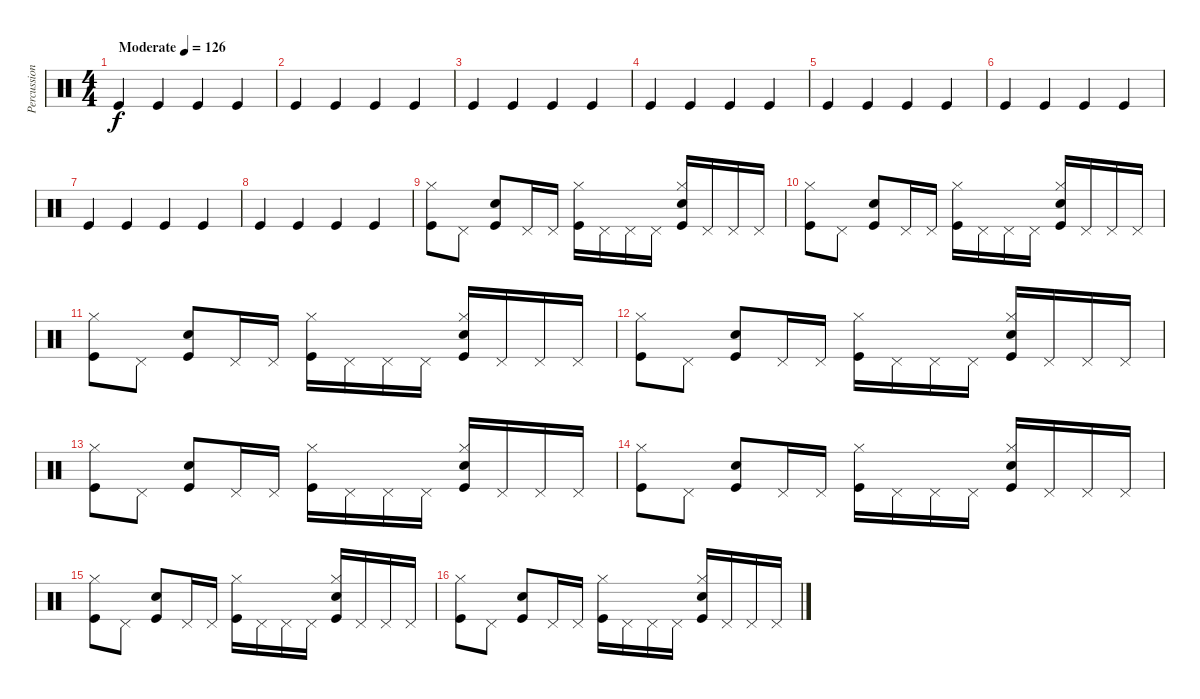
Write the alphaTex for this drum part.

\track ("Percussion" "Percussion") {instrument percussion}
\staff {score}
\articulation defaults
\ts (4 4)
\tempo (126 "Moderate")
\clef neutral
\ks c "Kick (hit)".4{dy f} "Kick (hit)".4 "Kick (hit)".4 "Kick (hit)".4
|
"Kick (hit)".4 "Kick (hit)".4 "Kick (hit)".4 "Kick (hit)".4 |
"Kick (hit)".4 "Kick (hit)".4 "Kick (hit)".4 "Kick (hit)".4 |
"Kick (hit)".4 "Kick (hit)".4 "Kick (hit)".4 "Kick (hit)".4 |
"Kick (hit)".4 "Kick (hit)".4 "Kick (hit)".4 "Kick (hit)".4 |
"Kick (hit)".4 "Kick (hit)".4 "Kick (hit)".4 "Kick (hit)".4 |
"Kick (hit)".4 "Kick (hit)".4 "Kick (hit)".4 "Kick (hit)".4 |
"Kick (hit)".4 "Kick (hit)".4 "Kick (hit)".4 "Kick (hit)".4 |
("Kick (hit)" "Hi-Hat (closed)").8 "Pedal Hi-Hat (hit)".8 ("Kick (hit)" "Snare (hit) 2").8 "Pedal Hi-Hat (hit)".16 "Pedal Hi-Hat (hit)".16 ("Kick (hit)" "Hi-Hat (closed)").16 "Pedal Hi-Hat (hit)".16 "Pedal Hi-Hat (hit)".16 "Pedal Hi-Hat (hit)".16 ("Kick (hit)" "Snare (hit) 2" "Hi-Hat (closed)").16 "Pedal Hi-Hat (hit)".16 "Pedal Hi-Hat (hit)".16 "Pedal Hi-Hat (hit)".16 |
("Kick (hit)" "Hi-Hat (closed)").8 "Pedal Hi-Hat (hit)".8 ("Kick (hit)" "Snare (hit) 2").8 "Pedal Hi-Hat (hit)".16 "Pedal Hi-Hat (hit)".16 ("Kick (hit)" "Hi-Hat (closed)").16 "Pedal Hi-Hat (hit)".16 "Pedal Hi-Hat (hit)".16 "Pedal Hi-Hat (hit)".16 ("Kick (hit)" "Snare (hit) 2" "Hi-Hat (closed)").16 "Pedal Hi-Hat (hit)".16 "Pedal Hi-Hat (hit)".16 "Pedal Hi-Hat (hit)".16 |
("Kick (hit)" "Hi-Hat (closed)").8 "Pedal Hi-Hat (hit)".8 ("Kick (hit)" "Snare (hit) 2").8 "Pedal Hi-Hat (hit)".16 "Pedal Hi-Hat (hit)".16 ("Kick (hit)" "Hi-Hat (closed)").16 "Pedal Hi-Hat (hit)".16 "Pedal Hi-Hat (hit)".16 "Pedal Hi-Hat (hit)".16 ("Kick (hit)" "Snare (hit) 2" "Hi-Hat (closed)").16 "Pedal Hi-Hat (hit)".16 "Pedal Hi-Hat (hit)".16 "Pedal Hi-Hat (hit)".16 |
("Kick (hit)" "Hi-Hat (closed)").8 "Pedal Hi-Hat (hit)".8 ("Kick (hit)" "Snare (hit) 2").8 "Pedal Hi-Hat (hit)".16 "Pedal Hi-Hat (hit)".16 ("Kick (hit)" "Hi-Hat (closed)").16 "Pedal Hi-Hat (hit)".16 "Pedal Hi-Hat (hit)".16 "Pedal Hi-Hat (hit)".16 ("Kick (hit)" "Snare (hit) 2" "Hi-Hat (closed)").16 "Pedal Hi-Hat (hit)".16 "Pedal Hi-Hat (hit)".16 "Pedal Hi-Hat (hit)".16 |
("Kick (hit)" "Hi-Hat (closed)").8 "Pedal Hi-Hat (hit)".8 ("Kick (hit)" "Snare (hit) 2").8 "Pedal Hi-Hat (hit)".16 "Pedal Hi-Hat (hit)".16 ("Kick (hit)" "Hi-Hat (closed)").16 "Pedal Hi-Hat (hit)".16 "Pedal Hi-Hat (hit)".16 "Pedal Hi-Hat (hit)".16 ("Kick (hit)" "Snare (hit) 2" "Hi-Hat (closed)").16 "Pedal Hi-Hat (hit)".16 "Pedal Hi-Hat (hit)".16 "Pedal Hi-Hat (hit)".16 |
("Kick (hit)" "Hi-Hat (closed)").8 "Pedal Hi-Hat (hit)".8 ("Kick (hit)" "Snare (hit) 2").8 "Pedal Hi-Hat (hit)".16 "Pedal Hi-Hat (hit)".16 ("Kick (hit)" "Hi-Hat (closed)").16 "Pedal Hi-Hat (hit)".16 "Pedal Hi-Hat (hit)".16 "Pedal Hi-Hat (hit)".16 ("Kick (hit)" "Snare (hit) 2" "Hi-Hat (closed)").16 "Pedal Hi-Hat (hit)".16 "Pedal Hi-Hat (hit)".16 "Pedal Hi-Hat (hit)".16 |
("Kick (hit)" "Hi-Hat (closed)").8 "Pedal Hi-Hat (hit)".8 ("Kick (hit)" "Snare (hit) 2").8 "Pedal Hi-Hat (hit)".16 "Pedal Hi-Hat (hit)".16 ("Kick (hit)" "Hi-Hat (closed)").16 "Pedal Hi-Hat (hit)".16 "Pedal Hi-Hat (hit)".16 "Pedal Hi-Hat (hit)".16 ("Kick (hit)" "Snare (hit) 2" "Hi-Hat (closed)").16 "Pedal Hi-Hat (hit)".16 "Pedal Hi-Hat (hit)".16 "Pedal Hi-Hat (hit)".16 |
("Kick (hit)" "Hi-Hat (closed)").8 "Pedal Hi-Hat (hit)".8 ("Kick (hit)" "Snare (hit) 2").8 "Pedal Hi-Hat (hit)".16 "Pedal Hi-Hat (hit)".16 ("Kick (hit)" "Hi-Hat (closed)").16 "Pedal Hi-Hat (hit)".16 "Pedal Hi-Hat (hit)".16 "Pedal Hi-Hat (hit)".16 ("Kick (hit)" "Snare (hit) 2" "Hi-Hat (closed)").16 "Pedal Hi-Hat (hit)".16 "Pedal Hi-Hat (hit)".16 "Pedal Hi-Hat (hit)".16
